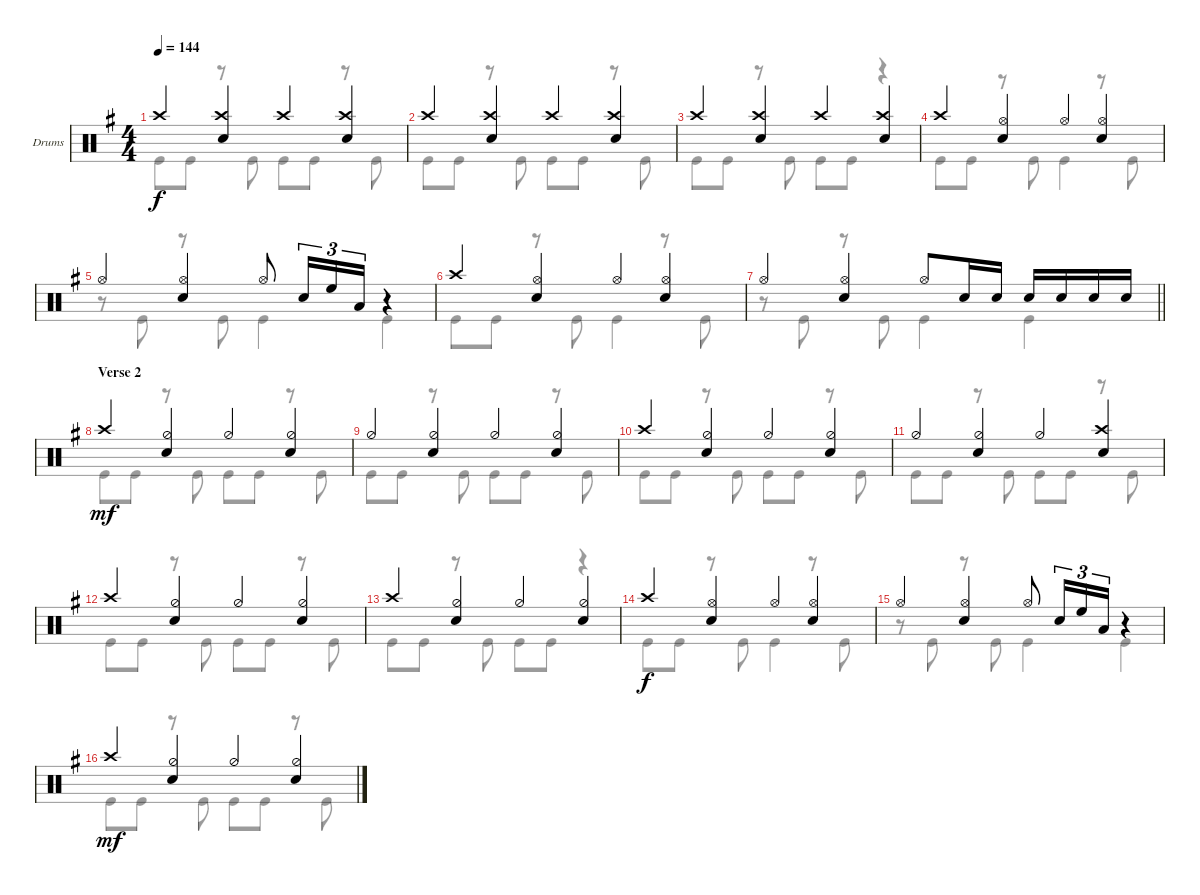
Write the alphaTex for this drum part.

\bracketExtendMode groupsimilarinstruments
\firstSystemTrackNameOrientation horizontal
\otherSystemsTrackNameOrientation horizontal
\track ("Drumkit" "Drums") {instrument percussion}
\staff {score}
\articulation defaults
\voice
\ts (4 4)
\tempo 144
\clef neutral
\scale
0.333333
\ks g "Crash high (hit)".4{dy f}
("Crash high (hit)" "Snare (hit) 2").4 "Crash high (hit)".4 ("Crash high (hit)" "Snare (hit) 2").4 |
\scale
0.333333 "Crash high (hit)".4 ("Crash high (hit)" "Snare (hit) 2").4 "Crash high (hit)".4 ("Crash high (hit)" "Snare (hit) 2").4 |
\scale
0.333333 "Crash high (hit)".4 ("Crash high (hit)" "Snare (hit) 2").4 "Crash high (hit)".4 ("Crash high (hit)" "Snare (hit) 2").4 |
\scale
0.333333 "Crash high (hit)".4 ("Hi-Hat (open)" "Snare (hit) 2").4 "Hi-Hat (open)".4 ("Hi-Hat (open)" "Snare (hit) 2").4 |
\scale
0.333333 "Hi-Hat (open)".4 ("Hi-Hat (open)" "Snare (hit) 2").4 "Hi-Hat (open)".8 "Snare (hit) 2".16{tu (3 2)} "High Floor Tom (hit)".16{tu (3 2)} "Low Tom (hit)".16{tu (3 2)} r.4 |
\scale
0.333333 "Crash high (hit)".4 ("Hi-Hat (open)" "Snare (hit) 2").4 "Hi-Hat (open)".4 ("Hi-Hat (open)" "Snare (hit) 2").4 |
\scale
0.333333
\barLineRight lightlight "Hi-Hat (open)".4
("Hi-Hat (open)" "Snare (hit) 2").4 "Hi-Hat (open)".8 "Snare (hit) 2".16 "Snare (hit) 2".16 "Snare (hit) 2".16 "Snare (hit) 2".16 "Snare (hit) 2".16 "Snare (hit) 2".16 |
\section ("" "Verse 2")
\scale
0.333333 "Crash high (hit)".4{dy mf} ("Hi-Hat (half)" "Snare (hit) 2").4 "Hi-Hat (half)".4 ("Hi-Hat (half)" "Snare (hit) 2").4 |
\scale
0.333333 "Hi-Hat (half)".4 ("Hi-Hat (half)" "Snare (hit) 2").4 "Hi-Hat (half)".4 ("Hi-Hat (half)" "Snare (hit) 2").4 |
\scale
0.333333 "Crash high (hit)".4 ("Hi-Hat (half)" "Snare (hit) 2").4 "Hi-Hat (half)".4 ("Hi-Hat (half)" "Snare (hit) 2").4 |
\scale
0.333333 "Hi-Hat (half)".4 ("Hi-Hat (half)" "Snare (hit) 2").4 "Hi-Hat (half)".4 ("Crash high (hit)" "Snare (hit) 2").4 |
\scale
0.333333 "Crash high (hit)".4 ("Hi-Hat (half)" "Snare (hit) 2").4 "Hi-Hat (half)".4 ("Hi-Hat (half)" "Snare (hit) 2").4 |
\scale
0.333333 "Crash high (hit)".4 ("Hi-Hat (half)" "Snare (hit) 2").4 "Hi-Hat (half)".4 ("Hi-Hat (half)" "Snare (hit) 2").4 |
\scale
0.333333 "Crash high (hit)".4{dy f} ("Hi-Hat (open)" "Snare (hit) 2").4 "Hi-Hat (open)".4 ("Hi-Hat (open)" "Snare (hit) 2").4 |
\scale
0.333333 "Hi-Hat (open)".4 ("Hi-Hat (open)" "Snare (hit) 2").4 "Hi-Hat (open)".8 "Snare (hit) 2".16{tu (3 2)} "High Floor Tom (hit)".16{tu (3 2)} "Low Tom (hit)".16{tu (3 2)} r.4 |
\scale
0.333333 "Crash high (hit)".4{dy mf} ("Hi-Hat (half)" "Snare (hit) 2").4 "Hi-Hat (half)".4 ("Hi-Hat (half)" "Snare (hit) 2").4
\voice
\clef neutral
\ottava regular
\simile none
\scale
0.333333
\ks g "Kick (hit)".8{dy f} "Kick (hit)".8
r.8 "Kick (hit)".8 "Kick (hit)".8 "Kick (hit)".8 r.8 "Kick (hit)".8 |
\scale
0.333333 "Kick (hit)".8 "Kick (hit)".8 r.8 "Kick (hit)".8 "Kick (hit)".8 "Kick (hit)".8 r.8 "Kick (hit)".8 |
\scale
0.333333 "Kick (hit)".8 "Kick (hit)".8 r.8 "Kick (hit)".8 "Kick (hit)".8 "Kick (hit)".8 r.4 |
\scale
0.333333 "Kick (hit)".8 "Kick (hit)".8 r.8 "Kick (hit)".8 "Kick (hit)".4 r.8 "Kick (hit)".8 |
\scale
0.333333 r.8 "Kick (hit)".8 r.8 "Kick (hit)".8 "Kick (hit)".4 "Kick (hit)".4 |
\scale
0.333333 "Kick (hit)".8 "Kick (hit)".8 r.8 "Kick (hit)".8 "Kick (hit)".4 r.8 "Kick (hit)".8 |
\scale
0.333333
\barLineRight lightlight
r.8 "Kick (hit)".8 r.8 "Kick (hit)".8 "Kick (hit)".4 "Kick (hit)".4 |
\scale
0.333333 "Kick (hit)".8{dy mf} "Kick (hit)".8 r.8 "Kick (hit)".8 "Kick (hit)".8 "Kick (hit)".8 r.8 "Kick (hit)".8 |
\scale
0.333333 "Kick (hit)".8 "Kick (hit)".8 r.8 "Kick (hit)".8 "Kick (hit)".8 "Kick (hit)".8 r.8 "Kick (hit)".8 |
\scale
0.333333 "Kick (hit)".8 "Kick (hit)".8 r.8 "Kick (hit)".8 "Kick (hit)".8 "Kick (hit)".8 r.8 "Kick (hit)".8 |
\scale
0.333333 "Kick (hit)".8 "Kick (hit)".8 r.8 "Kick (hit)".8 "Kick (hit)".8 "Kick (hit)".8 r.8 "Kick (hit)".8 |
\scale
0.333333 "Kick (hit)".8 "Kick (hit)".8 r.8 "Kick (hit)".8 "Kick (hit)".8 "Kick (hit)".8 r.8 "Kick (hit)".8 |
\scale
0.333333 "Kick (hit)".8 "Kick (hit)".8 r.8 "Kick (hit)".8 "Kick (hit)".8 "Kick (hit)".8 r.4 |
\scale
0.333333 "Kick (hit)".8{dy f} "Kick (hit)".8 r.8 "Kick (hit)".8 "Kick (hit)".4 r.8 "Kick (hit)".8 |
\scale
0.333333 r.8 "Kick (hit)".8 r.8 "Kick (hit)".8 "Kick (hit)".4 "Kick (hit)".4 |
\scale
0.333333 "Kick (hit)".8{dy mf} "Kick (hit)".8 r.8 "Kick (hit)".8 "Kick (hit)".8 "Kick (hit)".8 r.8 "Kick (hit)".8
